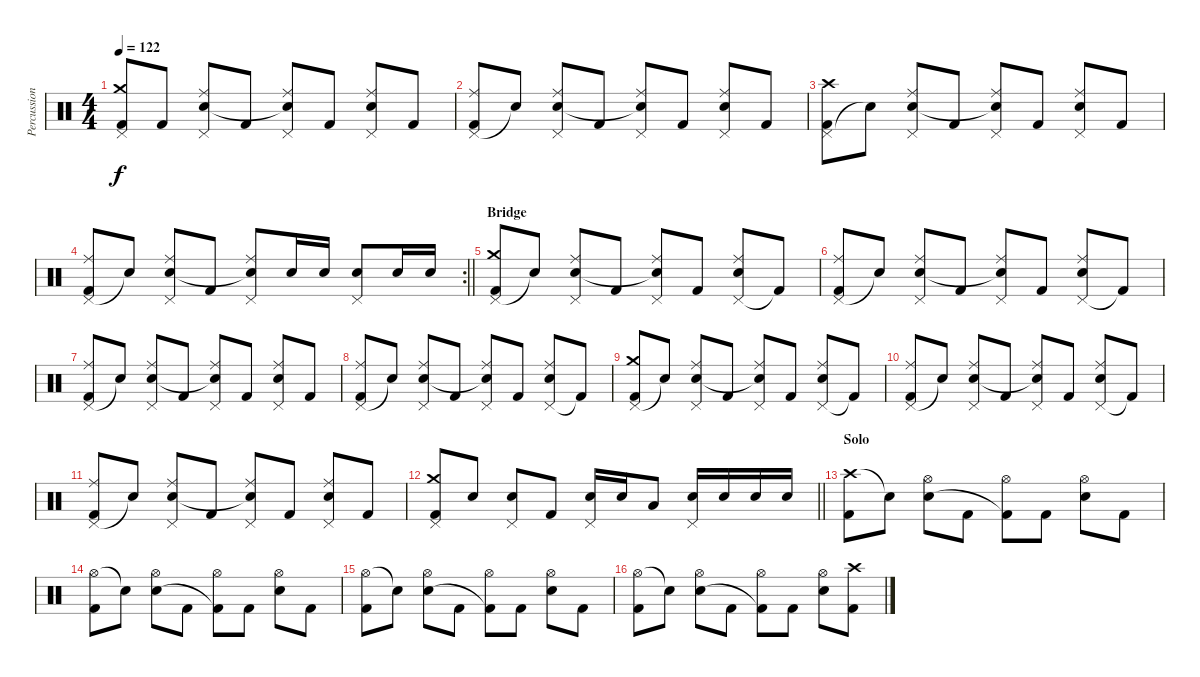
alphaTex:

\track ("Percussioni" "Percussion") {instrument percussion}
\staff {score}
\articulation defaults
\ts (4 4)
\tempo 122
\clef neutral
\ks c
("Pedal Hi-Hat (hit)" "Crash medium (hit)" "Kick (hit) 2").8{dy f} "Kick (hit) 2".8 ("Pedal Hi-Hat (hit)" "Ride (middle)" "Snare (hit) 2").8 "Kick (hit) 2".8 ("Pedal Hi-Hat (hit)" "Ride (middle)" "Snare (hit)"{t}).8 "Kick (hit) 2".8 ("Pedal Hi-Hat (hit)" "Ride (middle)" "Snare (hit) 2").8 "Kick (hit) 2".8 |
("Pedal Hi-Hat (hit)" "Ride (middle)" "Kick (hit) 2").8 "Snare (hit)"{t}.8 ("Pedal Hi-Hat (hit)" "Ride (middle)" "Snare (hit) 2").8 "Kick (hit) 2".8 ("Pedal Hi-Hat (hit)" "Ride (middle)" "Snare (hit)"{t}).8 "Kick (hit) 2".8 ("Pedal Hi-Hat (hit)" "Ride (middle)" "Snare (hit) 2").8 "Kick (hit) 2".8 |
("Pedal Hi-Hat (hit)" "Crash high (hit)" "Kick (hit) 2").8 "Snare (hit)"{t}.8 ("Pedal Hi-Hat (hit)" "Ride (middle)" "Snare (hit) 2").8 "Kick (hit) 2".8 ("Pedal Hi-Hat (hit)" "Ride (middle)" "Snare (hit)"{t}).8 "Kick (hit) 2".8 ("Pedal Hi-Hat (hit)" "Ride (middle)" "Snare (hit) 2").8 "Kick (hit) 2".8 |
\rc 2
\barLineRight lightlight
("Pedal Hi-Hat (hit)" "Ride (middle)" "Kick (hit) 2").8 "Snare (hit)"{t}.8 ("Pedal Hi-Hat (hit)" "Ride (middle)" "Snare (hit) 2").8 "Kick (hit) 2".8 ("Pedal Hi-Hat (hit)" "Ride (middle)" "Snare (hit)"{t}).8 "Snare (hit) 2".16 "Snare (hit) 2".16 ("Pedal Hi-Hat (hit)" "Snare (hit) 2").8 "Snare (hit) 2".16 "Snare (hit) 2".16 |
\section ("" "Bridge")
("Pedal Hi-Hat (hit)" "Crash medium (hit)" "Kick (hit) 2").8 "Snare (hit)"{t}.8 ("Pedal Hi-Hat (hit)" "Ride (middle)" "Snare (hit) 2").8 "Kick (hit) 2".8 ("Pedal Hi-Hat (hit)" "Ride (middle)" "Snare (hit)"{t}).8 "Kick (hit) 2".8 ("Pedal Hi-Hat (hit)" "Ride (middle)" "Snare (hit) 2").8 "Kick (hit) 2"{t}.8 |
("Pedal Hi-Hat (hit)" "Ride (middle)" "Kick (hit) 2").8 "Snare (hit)"{t}.8 ("Pedal Hi-Hat (hit)" "Ride (middle)" "Snare (hit) 2").8 "Kick (hit) 2".8 ("Pedal Hi-Hat (hit)" "Ride (middle)" "Snare (hit)"{t}).8 "Kick (hit) 2".8 ("Pedal Hi-Hat (hit)" "Ride (middle)" "Snare (hit) 2").8 "Kick (hit) 2"{t}.8 |
("Pedal Hi-Hat (hit)" "Ride (middle)" "Kick (hit) 2").8 "Snare (hit)"{t}.8 ("Pedal Hi-Hat (hit)" "Ride (middle)" "Snare (hit) 2").8 "Kick (hit) 2".8 ("Pedal Hi-Hat (hit)" "Ride (middle)" "Snare (hit)"{t}).8 "Kick (hit) 2".8 ("Pedal Hi-Hat (hit)" "Ride (middle)" "Snare (hit) 2").8 "Kick (hit) 2".8 |
("Pedal Hi-Hat (hit)" "Ride (middle)" "Kick (hit) 2").8 "Snare (hit)"{t}.8 ("Pedal Hi-Hat (hit)" "Ride (middle)" "Snare (hit) 2").8 "Kick (hit) 2".8 ("Pedal Hi-Hat (hit)" "Ride (middle)" "Snare (hit)"{t}).8 "Kick (hit) 2".8 ("Pedal Hi-Hat (hit)" "Ride (middle)" "Snare (hit) 2").8 "Kick (hit) 2"{t}.8 |
("Pedal Hi-Hat (hit)" "Crash medium (hit)" "Kick (hit) 2").8 "Snare (hit)"{t}.8 ("Pedal Hi-Hat (hit)" "Ride (middle)" "Snare (hit) 2").8 "Kick (hit) 2".8 ("Pedal Hi-Hat (hit)" "Ride (middle)" "Snare (hit)"{t}).8 "Kick (hit) 2".8 ("Pedal Hi-Hat (hit)" "Ride (middle)" "Snare (hit) 2").8 "Kick (hit) 2"{t}.8 |
("Pedal Hi-Hat (hit)" "Ride (middle)" "Kick (hit) 2").8 "Snare (hit)"{t}.8 ("Pedal Hi-Hat (hit)" "Ride (middle)" "Snare (hit) 2").8 "Kick (hit) 2".8 ("Pedal Hi-Hat (hit)" "Ride (middle)" "Snare (hit)"{t}).8 "Kick (hit) 2".8 ("Pedal Hi-Hat (hit)" "Ride (middle)" "Snare (hit) 2").8 "Kick (hit) 2"{t}.8 |
("Pedal Hi-Hat (hit)" "Ride (middle)" "Kick (hit) 2").8 "Snare (hit)"{t}.8 ("Pedal Hi-Hat (hit)" "Ride (middle)" "Snare (hit) 2").8 "Kick (hit) 2".8 ("Pedal Hi-Hat (hit)" "Ride (middle)" "Snare (hit)"{t}).8 "Kick (hit) 2".8 ("Pedal Hi-Hat (hit)" "Ride (middle)" "Snare (hit) 2").8 "Kick (hit) 2".8 |
\barLineRight lightlight
("Pedal Hi-Hat (hit)" "Crash medium (hit)" "Kick (hit) 2").8 "Snare (hit) 2".8 ("Pedal Hi-Hat (hit)" "Snare (hit) 2").8 "Kick (hit) 2".8 ("Pedal Hi-Hat (hit)" "Snare (hit) 2").16 "Snare (hit) 2".16 "Low Tom (hit)".8 ("Pedal Hi-Hat (hit)" "Snare (hit) 2").16 "Snare (hit) 2".16 "Snare (hit) 2".16 "Snare (hit) 2".16 |
\section ("" "Solo")
("Crash high (hit)" "Kick (hit) 2").8 "Snare (hit)"{t}.8 ("Hi-Hat (open)" "Snare (hit) 2").8 "Kick (hit) 2".8 ("Hi-Hat (open)" "Kick (hit) 2"{t}).8 "Kick (hit) 2".8 ("Hi-Hat (open)" "Snare (hit) 2").8 "Kick (hit) 2".8 |
("Hi-Hat (open)" "Kick (hit) 2").8 "Snare (hit)"{t}.8 ("Hi-Hat (open)" "Snare (hit) 2").8 "Kick (hit) 2".8 ("Hi-Hat (open)" "Kick (hit) 2"{t}).8 "Kick (hit) 2".8 ("Hi-Hat (open)" "Snare (hit) 2").8 "Kick (hit) 2".8 |
("Hi-Hat (open)" "Kick (hit) 2").8 "Snare (hit)"{t}.8 ("Hi-Hat (open)" "Snare (hit) 2").8 "Kick (hit) 2".8 ("Hi-Hat (open)" "Kick (hit) 2"{t}).8 "Kick (hit) 2".8 ("Hi-Hat (open)" "Snare (hit) 2").8 "Kick (hit) 2".8 |
("Hi-Hat (open)" "Kick (hit) 2").8 "Snare (hit)"{t}.8 ("Hi-Hat (open)" "Snare (hit) 2").8 "Kick (hit) 2".8 ("Hi-Hat (open)" "Kick (hit) 2"{t}).8 "Kick (hit) 2".8 ("Hi-Hat (open)" "Snare (hit) 2").8 ("Crash high (hit)" "Kick (hit) 2").8
